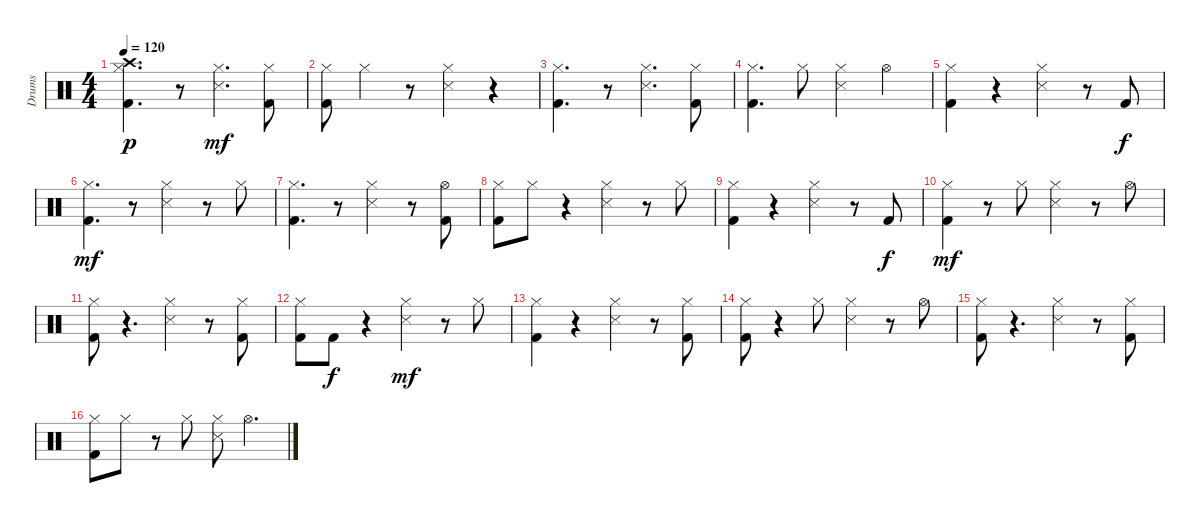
\track ("Drums" "Drums") {instrument percussion}
\staff {score}
\articulation defaults
\ts (4 4)
\tempo 120
\clef neutral
\ks c
("Kick (hit) 2" "Hi-Hat (closed)" "Crash high (hit)").4{d dy p} r.8 ("Hi-Hat (closed)" "Snare (side stick) 3").4{d dy mf} ("Kick (hit) 2" "Hi-Hat (closed)").8 |
("Kick (hit) 2" "Hi-Hat (closed)").8 "Hi-Hat (closed)".4 r.8 ("Hi-Hat (closed)" "Snare (side stick) 3").4 r.4 |
("Kick (hit) 2" "Hi-Hat (closed)").4{d} r.8 ("Hi-Hat (closed)" "Snare (side stick) 3").4{d} ("Kick (hit) 2" "Hi-Hat (closed)").8 |
("Kick (hit) 2" "Hi-Hat (closed)").4{d} "Hi-Hat (closed)".8 ("Hi-Hat (closed)" "Snare (side stick) 3").4 "Hi-Hat (open)".4 |
("Kick (hit) 2" "Hi-Hat (closed)").4 r.4 ("Hi-Hat (closed)" "Snare (side stick) 3").4 r.8 "Kick (hit) 2".8{dy f} |
("Kick (hit) 2" "Hi-Hat (closed)").4{d dy mf} r.8 ("Hi-Hat (closed)" "Snare (side stick) 3").4 r.8 "Hi-Hat (closed)".8 |
("Kick (hit) 2" "Hi-Hat (closed)").4{d} r.8 ("Hi-Hat (closed)" "Snare (side stick) 3").4 r.8 ("Kick (hit) 2" "Hi-Hat (open)").8 |
("Kick (hit) 2" "Hi-Hat (closed)").8 "Hi-Hat (closed)".8 r.4 ("Hi-Hat (closed)" "Snare (side stick) 3").4 r.8 "Hi-Hat (closed)".8 |
("Kick (hit) 2" "Hi-Hat (closed)").4 r.4 ("Hi-Hat (closed)" "Snare (side stick) 3").4 r.8 "Kick (hit) 2".8{dy f} |
("Kick (hit) 2" "Hi-Hat (closed)").4{dy mf} r.8 "Hi-Hat (closed)".8 ("Hi-Hat (closed)" "Snare (side stick) 3").4 r.8 "Hi-Hat (open)".8 |
("Kick (hit) 2" "Hi-Hat (closed)").8 r.4{d} ("Hi-Hat (closed)" "Snare (side stick) 3").4 r.8 ("Kick (hit) 2" "Hi-Hat (closed)").8 |
("Kick (hit) 2" "Hi-Hat (closed)").8 "Kick (hit) 2".8{dy f} r.4 ("Hi-Hat (closed)" "Snare (side stick) 3").4{dy mf} r.8 "Hi-Hat (closed)".8 |
("Kick (hit) 2" "Hi-Hat (closed)").4 r.4 ("Hi-Hat (closed)" "Snare (side stick) 3").4 r.8 ("Kick (hit) 2" "Hi-Hat (closed)").8 |
("Kick (hit) 2" "Hi-Hat (closed)").8 r.4 "Hi-Hat (closed)".8 ("Hi-Hat (closed)" "Snare (side stick) 3").4 r.8 "Hi-Hat (open)".8 |
("Kick (hit) 2" "Hi-Hat (closed)").8 r.4{d} ("Hi-Hat (closed)" "Snare (side stick) 3").4 r.8 ("Kick (hit) 2" "Hi-Hat (closed)").8 |
("Kick (hit) 2" "Hi-Hat (closed)").8 "Hi-Hat (closed)".8 r.8 "Hi-Hat (closed)".8 ("Hi-Hat (closed)" "Snare (side stick) 3").8 "Hi-Hat (open)".4{d}
